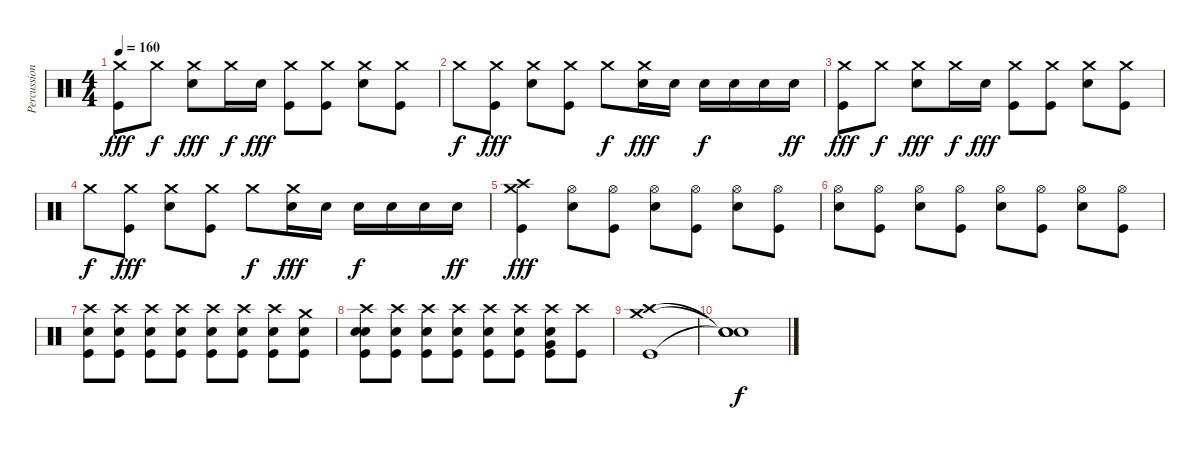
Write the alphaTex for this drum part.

\track ("Percussion" "Percussion") {instrument percussion}
\staff {score}
\articulation defaults
\ts (4 4)
\tempo 160
\clef neutral
\ks c
("Crash medium (hit)" "Kick (hit)").8{dy fff} "Crash medium (hit)".8{dy f} ("Crash medium (hit)" "Snare (hit) 2").8{dy fff} "Crash medium (hit)".16{dy f} "Snare (hit) 2".16{dy fff} ("Crash medium (hit)" "Kick (hit)").8 ("Crash medium (hit)" "Kick (hit)").8 ("Crash medium (hit)" "Snare (hit) 2").8 ("Crash medium (hit)" "Kick (hit)").8 |
"Crash medium (hit)".8{dy f} ("Crash medium (hit)" "Kick (hit)").8{dy fff} ("Crash medium (hit)" "Snare (hit) 2").8 ("Crash medium (hit)" "Kick (hit)").8 "Crash medium (hit)".8{dy f} ("Crash medium (hit)" "Snare (hit) 2").16{dy fff} "Snare (hit) 2".16 "Snare (hit) 2".16{dy f} "Snare (hit) 2".16 "Snare (hit) 2".16 "Snare (hit) 2".16{dy ff} |
("Crash medium (hit)" "Kick (hit)").8{dy fff} "Crash medium (hit)".8{dy f} ("Crash medium (hit)" "Snare (hit) 2").8{dy fff} "Crash medium (hit)".16{dy f} "Snare (hit) 2".16{dy fff} ("Crash medium (hit)" "Kick (hit)").8 ("Crash medium (hit)" "Kick (hit)").8 ("Crash medium (hit)" "Snare (hit) 2").8 ("Crash medium (hit)" "Kick (hit)").8 |
"Crash medium (hit)".8{dy f} ("Crash medium (hit)" "Kick (hit)").8{dy fff} ("Crash medium (hit)" "Snare (hit) 2").8 ("Crash medium (hit)" "Kick (hit)").8 "Crash medium (hit)".8{dy f} ("Crash medium (hit)" "Snare (hit) 2").16{dy fff} "Snare (hit) 2".16 "Snare (hit) 2".16{dy f} "Snare (hit) 2".16 "Snare (hit) 2".16 "Snare (hit) 2".16{dy ff} |
("Crash high (hit)" "Crash medium (hit)" "Kick (hit)").4{dy fff} ("Hi-Hat (open)" "Snare (hit) 2").8 ("Hi-Hat (open)" "Kick (hit)").8 ("Hi-Hat (open)" "Snare (hit) 2").8 ("Hi-Hat (open)" "Kick (hit)").8 ("Hi-Hat (open)" "Snare (hit) 2").8 ("Hi-Hat (open)" "Kick (hit)").8 |
("Hi-Hat (open)" "Snare (hit) 2").8 ("Hi-Hat (open)" "Kick (hit)").8 ("Hi-Hat (open)" "Snare (hit) 2").8 ("Hi-Hat (open)" "Kick (hit)").8 ("Hi-Hat (open)" "Snare (hit) 2").8 ("Hi-Hat (open)" "Kick (hit)").8 ("Hi-Hat (open)" "Snare (hit) 2").8 ("Hi-Hat (open)" "Kick (hit)").8 |
("Crash high (hit)" "Snare (hit) 2" "Kick (hit)").8 ("Crash high (hit)" "Snare (hit) 2" "Kick (hit)").8 ("Crash high (hit)" "Snare (hit) 2" "Kick (hit)").8 ("Crash high (hit)" "Snare (hit) 2" "Kick (hit)").8 ("Crash high (hit)" "Snare (hit) 2" "Kick (hit)").8 ("Crash high (hit)" "Snare (hit) 2" "Kick (hit)").8 ("Crash high (hit)" "Snare (hit) 2" "Kick (hit)").8 ("Crash medium (hit)" "Snare (hit) 2" "Kick (hit)").8 |
("Crash high (hit)" "Snare (hit) 2" "Kick (hit)" "Snare (hit)").8 ("Crash high (hit)" "Snare (hit) 2" "Kick (hit)").8 ("Crash high (hit)" "Snare (hit) 2" "Kick (hit)").8 ("Crash high (hit)" "Snare (hit) 2" "Kick (hit)").8 ("Crash high (hit)" "Snare (hit) 2" "Kick (hit)").8 ("Crash high (hit)" "Snare (hit) 2" "Kick (hit)").8 ("Crash high (hit)" "Very Low Tom (hit)" "Snare (hit) 2" "Kick (hit)").8 ("Crash high (hit)" "Kick (hit)").8 |
("Crash high (hit)" "Crash medium (hit)" "Kick (hit)").1 |
("Snare (hit)"{t} "Snare (hit)"{t} "Snare (hit)"{t}).1{dy f}
